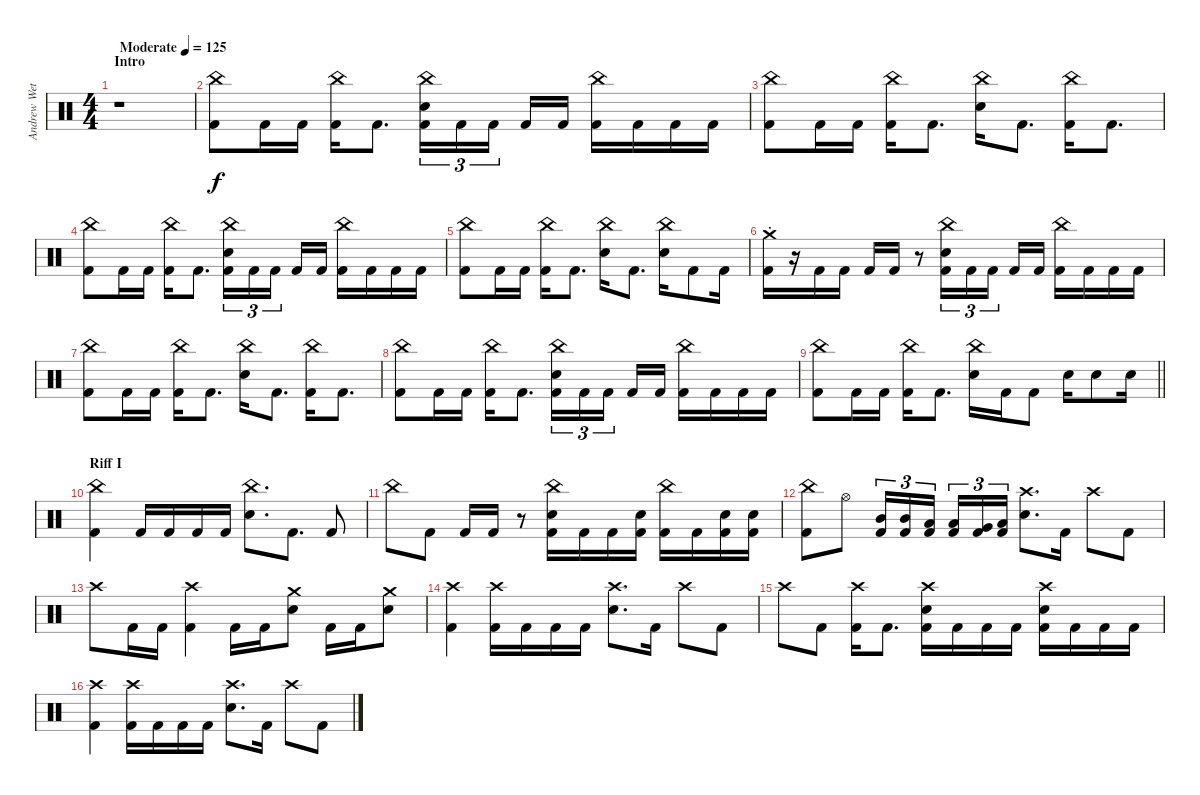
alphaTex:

\track ("Andrew Wetzel" "Andrew Wet") {instrument percussion}
\staff {score}
\articulation defaults
\ts (4 4)
\section ("" "Intro")
\tempo (125 "Moderate")
\clef neutral
\ks c
r.1{dy f} |
("China (hit)" "Kick (hit) 2").8 "Kick (hit) 2".16 "Kick (hit) 2".16 ("China (hit)" "Kick (hit) 2").16 "Kick (hit) 2".8{d} ("China (hit)" "Snare (hit) 2" "Kick (hit) 2").16{tu (3 2)} "Kick (hit) 2".16{tu (3 2)} "Kick (hit) 2".16{tu (3 2) beam splitsecondary} "Kick (hit) 2".16 "Kick (hit) 2".16 ("China (hit)" "Kick (hit) 2").16 "Kick (hit) 2".16 "Kick (hit) 2".16 "Kick (hit) 2".16 |
("China (hit)" "Kick (hit) 2").8 "Kick (hit) 2".16 "Kick (hit) 2".16 ("China (hit)" "Kick (hit) 2").16 "Kick (hit) 2".8{d} ("China (hit)" "Snare (hit) 2").16 "Kick (hit) 2".8{d} ("China (hit)" "Kick (hit) 2").16 "Kick (hit) 2".8{d} |
("China (hit)" "Kick (hit) 2").8 "Kick (hit) 2".16 "Kick (hit) 2".16 ("China (hit)" "Kick (hit) 2").16 "Kick (hit) 2".8{d} ("China (hit)" "Snare (hit) 2" "Kick (hit) 2").16{tu (3 2)} "Kick (hit) 2".16{tu (3 2)} "Kick (hit) 2".16{tu (3 2) beam splitsecondary} "Kick (hit) 2".16 "Kick (hit) 2".16 ("China (hit)" "Kick (hit) 2").16 "Kick (hit) 2".16 "Kick (hit) 2".16 "Kick (hit) 2".16 |
("China (hit)" "Kick (hit) 2").8 "Kick (hit) 2".16 "Kick (hit) 2".16 ("China (hit)" "Kick (hit) 2").16 "Kick (hit) 2".8{d} ("China (hit)" "Snare (hit) 2").16 "Kick (hit) 2".8{d} ("China (hit)" "Snare (hit) 2").16 "Kick (hit) 2".8 "Kick (hit) 2".16 |
("Crash medium (hit)"{st} "Kick (hit) 2").16 r.16 "Kick (hit) 2".16 "Kick (hit) 2".16 "Kick (hit) 2".16 "Kick (hit) 2".16 r.8 ("China (hit)" "Snare (hit) 2" "Kick (hit) 2").16{tu (3 2)} "Kick (hit) 2".16{tu (3 2)} "Kick (hit) 2".16{tu (3 2) beam splitsecondary} "Kick (hit) 2".16 "Kick (hit) 2".16 ("China (hit)" "Kick (hit) 2").16 "Kick (hit) 2".16 "Kick (hit) 2".16 "Kick (hit) 2".16 |
("China (hit)" "Kick (hit) 2").8 "Kick (hit) 2".16 "Kick (hit) 2".16 ("China (hit)" "Kick (hit) 2").16 "Kick (hit) 2".8{d} ("China (hit)" "Snare (hit) 2").16 "Kick (hit) 2".8{d} ("China (hit)" "Kick (hit) 2").16 "Kick (hit) 2".8{d} |
("China (hit)" "Kick (hit) 2").8 "Kick (hit) 2".16 "Kick (hit) 2".16 ("China (hit)" "Kick (hit) 2").16 "Kick (hit) 2".8{d} ("China (hit)" "Snare (hit) 2" "Kick (hit) 2").16{tu (3 2)} "Kick (hit) 2".16{tu (3 2)} "Kick (hit) 2".16{tu (3 2) beam splitsecondary} "Kick (hit) 2".16 "Kick (hit) 2".16 ("China (hit)" "Kick (hit) 2").16 "Kick (hit) 2".16 "Kick (hit) 2".16 "Kick (hit) 2".16 |
\barLineRight lightlight
("China (hit)" "Kick (hit) 2").8 "Kick (hit) 2".16 "Kick (hit) 2".16 ("China (hit)" "Kick (hit) 2").16 "Kick (hit) 2".8{d} ("China (hit)" "Snare (hit) 2").16 "Kick (hit) 2".16 "Kick (hit) 2".8 "Snare (hit) 2".16 "Snare (hit) 2".8 "Snare (hit) 2".16 |
\section ("" "Riff I")
("China (hit)" "Kick (hit) 2").4 "Kick (hit) 2".16 "Kick (hit) 2".16 "Kick (hit) 2".16 "Kick (hit) 2".16 ("China (hit)" "Snare (hit) 2").8{d} "Kick (hit) 2".8{d} "Kick (hit) 2".8 |
"China (hit)".8 "Kick (hit) 2".8 "Kick (hit) 2".16 "Kick (hit) 2".16 r.8 ("China (hit)" "Snare (hit) 2" "Kick (hit) 2").16 "Kick (hit) 2".16 "Kick (hit) 2".16 ("Snare (hit) 2" "Kick (hit) 2").16 ("China (hit)" "Kick (hit) 2").16 "Kick (hit) 2".16 ("Snare (hit) 2" "Kick (hit) 2").16 ("Snare (hit) 2" "Kick (hit) 2").16 |
("China (hit)" "Kick (hit) 2").8 "Hi-Hat (open)".8 ("Mid Tom (hit)" "Kick (hit) 2").16{tu (3 2)} ("Mid Tom (hit)" "Kick (hit) 2").16{tu (3 2)} ("Low Tom (hit)" "Kick (hit) 2").16{tu (3 2) beam splitsecondary} ("Low Tom (hit)" "Kick (hit) 2").16{tu (3 2)} ("Very Low Tom (hit)" "Kick (hit) 2").16{tu (3 2)} ("Low Floor Tom (hit)" "Kick (hit) 2").16{tu (3 2)} ("Crash high (hit)" "Snare (hit) 2").8{d} "Kick (hit) 2".16 "Crash high (hit)".8 "Kick (hit) 2".8 |
"Crash high (hit)".8 "Kick (hit) 2".16 "Kick (hit) 2".16 ("Crash high (hit)" "Kick (hit) 2").4 "Kick (hit) 2".16 "Kick (hit) 2".16 ("Crash medium (hit)" "Snare (hit) 2").8 "Kick (hit) 2".16 "Kick (hit) 2".16 ("Crash medium (hit)" "Snare (hit) 2").8 |
("Crash high (hit)" "Kick (hit) 2").4 ("Crash high (hit)" "Kick (hit) 2").16 "Kick (hit) 2".16 "Kick (hit) 2".16 "Kick (hit) 2".16 ("Crash high (hit)" "Snare (hit) 2").8{d} "Kick (hit) 2".16 "Crash high (hit)".8 "Kick (hit) 2".8 |
"Crash high (hit)".8 "Kick (hit) 2".8 ("Crash high (hit)" "Kick (hit) 2").16 "Kick (hit) 2".8{d} ("Crash high (hit)" "Snare (hit) 2" "Kick (hit) 2").16 "Kick (hit) 2".16 "Kick (hit) 2".16 "Kick (hit) 2".16 ("Crash high (hit)" "Snare (hit) 2" "Kick (hit) 2").16 "Kick (hit) 2".16 "Kick (hit) 2".16 "Kick (hit) 2".16 |
("Crash high (hit)" "Kick (hit) 2").4 ("Crash high (hit)" "Kick (hit) 2").16 "Kick (hit) 2".16 "Kick (hit) 2".16 "Kick (hit) 2".16 ("Crash high (hit)" "Snare (hit) 2").8{d} "Kick (hit) 2".16 "Crash high (hit)".8 "Kick (hit) 2".8
